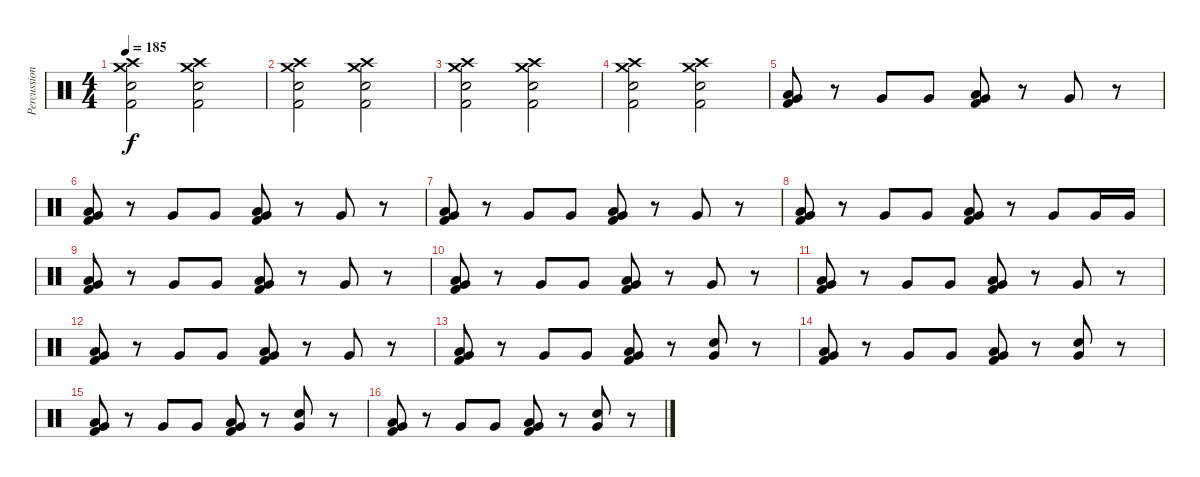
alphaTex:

\track ("Percussion" "Percussion") {instrument percussion}
\staff {score}
\articulation defaults
\ts (4 4)
\tempo 185
\clef neutral
\ks c
("Crash medium (hit)" "Crash high (hit)" "Snare (hit) 2" "Kick (hit) 2").2{dy f} ("Crash medium (hit)" "Crash high (hit)" "Snare (hit) 2" "Kick (hit) 2").2 |
("Crash medium (hit)" "Crash high (hit)" "Snare (hit) 2" "Kick (hit) 2").2 ("Crash medium (hit)" "Crash high (hit)" "Snare (hit) 2" "Kick (hit) 2").2 |
("Crash medium (hit)" "Crash high (hit)" "Snare (hit) 2" "Kick (hit) 2").2 ("Crash medium (hit)" "Crash high (hit)" "Snare (hit) 2" "Kick (hit) 2").2 |
("Crash medium (hit)" "Crash high (hit)" "Snare (hit) 2" "Kick (hit) 2").2 ("Crash medium (hit)" "Crash high (hit)" "Snare (hit) 2" "Kick (hit) 2").2 |
("Very Low Tom (hit)" "Low Floor Tom (hit)" "Kick (hit) 2").8 r.8 "Very Low Tom (hit)".8 "Very Low Tom (hit)".8 ("Very Low Tom (hit)" "Low Floor Tom (hit)" "Kick (hit) 2").8 r.8 "Very Low Tom (hit)".8 r.8 |
("Very Low Tom (hit)" "Low Floor Tom (hit)" "Kick (hit) 2").8 r.8 "Very Low Tom (hit)".8 "Very Low Tom (hit)".8 ("Very Low Tom (hit)" "Low Floor Tom (hit)" "Kick (hit) 2").8 r.8 "Very Low Tom (hit)".8 r.8 |
("Very Low Tom (hit)" "Low Floor Tom (hit)" "Kick (hit) 2").8 r.8 "Very Low Tom (hit)".8 "Very Low Tom (hit)".8 ("Very Low Tom (hit)" "Low Floor Tom (hit)" "Kick (hit) 2").8 r.8 "Very Low Tom (hit)".8 r.8 |
("Very Low Tom (hit)" "Low Floor Tom (hit)" "Kick (hit) 2").8 r.8 "Very Low Tom (hit)".8 "Very Low Tom (hit)".8 ("Very Low Tom (hit)" "Low Floor Tom (hit)" "Kick (hit) 2").8 r.8 "Very Low Tom (hit)".8 "Very Low Tom (hit)".16 "Very Low Tom (hit)".16 |
("Very Low Tom (hit)" "Low Floor Tom (hit)" "Kick (hit) 2").8 r.8 "Very Low Tom (hit)".8 "Very Low Tom (hit)".8 ("Very Low Tom (hit)" "Low Floor Tom (hit)" "Kick (hit) 2").8 r.8 "Very Low Tom (hit)".8 r.8 |
("Very Low Tom (hit)" "Low Floor Tom (hit)" "Kick (hit) 2").8 r.8 "Very Low Tom (hit)".8 "Very Low Tom (hit)".8 ("Very Low Tom (hit)" "Low Floor Tom (hit)" "Kick (hit) 2").8 r.8 "Very Low Tom (hit)".8 r.8 |
("Very Low Tom (hit)" "Low Floor Tom (hit)" "Kick (hit) 2").8 r.8 "Very Low Tom (hit)".8 "Very Low Tom (hit)".8 ("Very Low Tom (hit)" "Low Floor Tom (hit)" "Kick (hit) 2").8 r.8 "Very Low Tom (hit)".8 r.8 |
("Very Low Tom (hit)" "Low Floor Tom (hit)" "Kick (hit) 2").8 r.8 "Very Low Tom (hit)".8 "Very Low Tom (hit)".8 ("Very Low Tom (hit)" "Low Floor Tom (hit)" "Kick (hit) 2").8 r.8 "Very Low Tom (hit)".8 r.8 |
("Very Low Tom (hit)" "Low Floor Tom (hit)" "Kick (hit) 2").8 r.8 "Very Low Tom (hit)".8 "Very Low Tom (hit)".8 ("Very Low Tom (hit)" "Low Floor Tom (hit)" "Kick (hit) 2").8 r.8 ("Very Low Tom (hit)" "Snare (hit) 2").8 r.8 |
("Very Low Tom (hit)" "Low Floor Tom (hit)" "Kick (hit) 2").8 r.8 "Very Low Tom (hit)".8 "Very Low Tom (hit)".8 ("Very Low Tom (hit)" "Low Floor Tom (hit)" "Kick (hit) 2").8 r.8 ("Very Low Tom (hit)" "Snare (hit) 2").8 r.8 |
("Very Low Tom (hit)" "Low Floor Tom (hit)" "Kick (hit) 2").8 r.8 "Very Low Tom (hit)".8 "Very Low Tom (hit)".8 ("Very Low Tom (hit)" "Low Floor Tom (hit)" "Kick (hit) 2").8 r.8 ("Very Low Tom (hit)" "Snare (hit) 2").8 r.8 |
("Very Low Tom (hit)" "Low Floor Tom (hit)" "Kick (hit) 2").8 r.8 "Very Low Tom (hit)".8 "Very Low Tom (hit)".8 ("Very Low Tom (hit)" "Low Floor Tom (hit)" "Kick (hit) 2").8 r.8 ("Very Low Tom (hit)" "Snare (hit) 2").8 r.8
